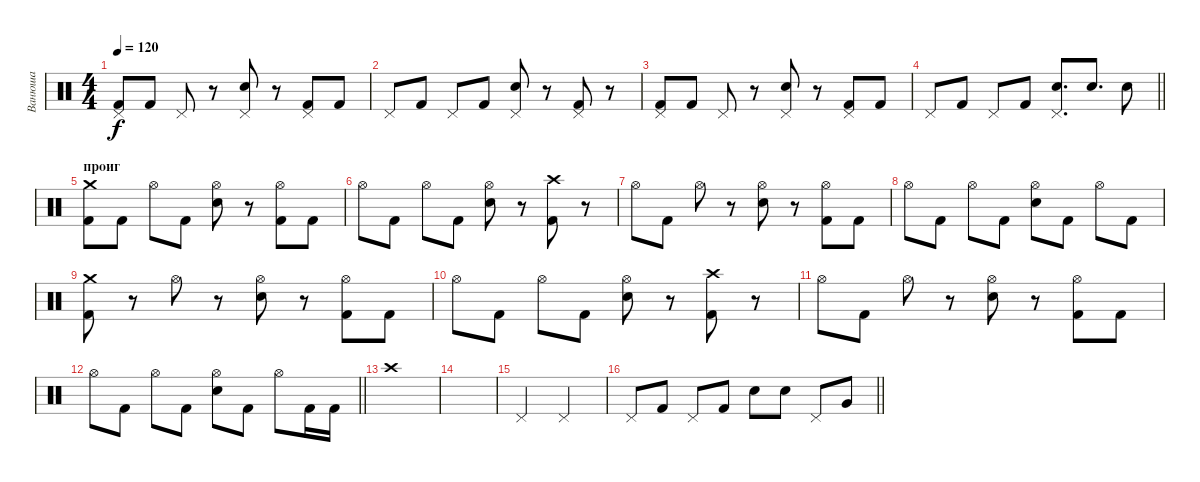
\track ("Ванюша" "Ванюша") {instrument percussion}
\staff {score}
\articulation defaults
\ts (4 4)
\tempo 120
\clef neutral
\ks c
("Pedal Hi-Hat (hit)" "Kick (hit) 2").8{dy f} "Kick (hit) 2".8 "Pedal Hi-Hat (hit)".8 r.8 ("Pedal Hi-Hat (hit)" "Snare (hit) 2").8 r.8 ("Pedal Hi-Hat (hit)" "Kick (hit) 2").8 "Kick (hit) 2".8 |
"Pedal Hi-Hat (hit)".8 "Kick (hit) 2".8 "Pedal Hi-Hat (hit)".8 "Kick (hit) 2".8 ("Pedal Hi-Hat (hit)" "Snare (hit) 2").8 r.8 ("Pedal Hi-Hat (hit)" "Kick (hit) 2").8 r.8 |
("Pedal Hi-Hat (hit)" "Kick (hit) 2").8 "Kick (hit) 2".8 "Pedal Hi-Hat (hit)".8 r.8 ("Pedal Hi-Hat (hit)" "Snare (hit) 2").8 r.8 ("Pedal Hi-Hat (hit)" "Kick (hit) 2").8 "Kick (hit) 2".8 |
\barLineRight lightlight "Pedal Hi-Hat (hit)".8 "Kick (hit) 2".8 "Pedal Hi-Hat (hit)".8 "Kick (hit) 2".8
("Pedal Hi-Hat (hit)" "Snare (hit) 2").8{d} "Snare (hit) 2".8{d} "Snare (hit) 2".8 |
\section ("" "проиг")
("Crash medium (hit)" "Kick (hit) 2").8 "Kick (hit) 2".8 "Hi-Hat (open)".8 "Kick (hit) 2".8 ("Hi-Hat (open)" "Snare (hit) 2").8 r.8 ("Hi-Hat (open)" "Kick (hit) 2").8 "Kick (hit) 2".8 |
"Hi-Hat (open)".8 "Kick (hit) 2".8 "Hi-Hat (open)".8 "Kick (hit) 2".8 ("Hi-Hat (open)" "Snare (hit) 2").8 r.8 ("Crash high (hit)" "Kick (hit) 2").8 r.8 |
"Hi-Hat (open)".8 "Kick (hit) 2".8 "Hi-Hat (open)".8 r.8 ("Hi-Hat (open)" "Snare (hit) 2").8 r.8 ("Hi-Hat (open)" "Kick (hit) 2").8 "Kick (hit) 2".8 |
"Hi-Hat (open)".8 "Kick (hit) 2".8 "Hi-Hat (open)".8 "Kick (hit) 2".8 ("Hi-Hat (open)" "Snare (hit) 2").8 "Kick (hit) 2".8 "Hi-Hat (open)".8 "Kick (hit) 2".8 |
("Crash medium (hit)" "Kick (hit) 2").8 r.8 "Hi-Hat (open)".8 r.8 ("Hi-Hat (open)" "Snare (hit) 2").8 r.8 ("Hi-Hat (open)" "Kick (hit) 2").8 "Kick (hit) 2".8 |
"Hi-Hat (open)".8 "Kick (hit) 2".8 "Hi-Hat (open)".8 "Kick (hit) 2".8 ("Hi-Hat (open)" "Snare (hit) 2").8 r.8 ("Crash high (hit)" "Kick (hit) 2").8 r.8 |
"Hi-Hat (open)".8 "Kick (hit) 2".8 "Hi-Hat (open)".8 r.8 ("Hi-Hat (open)" "Snare (hit) 2").8 r.8 ("Hi-Hat (open)" "Kick (hit) 2").8 "Kick (hit) 2".8 |
\barLineRight lightlight "Hi-Hat (open)".8 "Kick (hit) 2".8 "Hi-Hat (open)".8 "Kick (hit) 2".8
("Hi-Hat (open)" "Snare (hit) 2").8 "Kick (hit) 2".8 "Hi-Hat (open)".8 "Kick (hit) 2".16 "Kick (hit) 2".16 |
"Crash high (hit)".1 |
|
"Pedal Hi-Hat (hit)".2 "Pedal Hi-Hat (hit)".2 |
\barLineRight lightlight "Pedal Hi-Hat (hit)".8 "Kick (hit) 2".8 "Pedal Hi-Hat (hit)".8 "Kick (hit) 2".8 "Snare (hit) 2".8 "Snare (hit) 2".8 "Pedal Hi-Hat (hit)".8 "Very Low Tom (hit)".8
